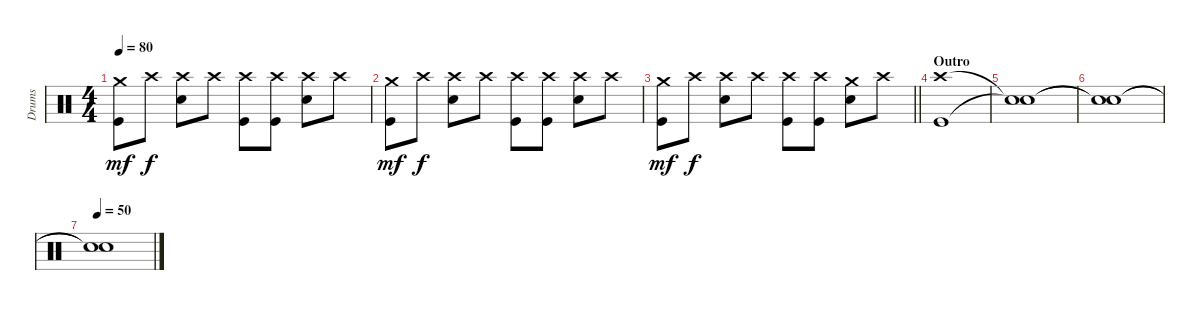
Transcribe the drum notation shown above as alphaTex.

\track ("Drums" "Drums") {instrument percussion}
\staff {score}
\articulation defaults
\ts (4 4)
\tempo 80
\clef neutral
\ks c
("Crash medium (hit)" "Kick (hit)").8{dy mf} "Crash high (hit)".8{dy f} ("Crash high (hit)" "Snare (hit) 2").8 "Crash high (hit)".8 ("Crash high (hit)" "Kick (hit)").8 ("Crash high (hit)" "Kick (hit)").8 ("Crash high (hit)" "Snare (hit) 2").8 "Crash high (hit)".8 |
("Crash medium (hit)" "Kick (hit)").8{dy mf} "Crash high (hit)".8{dy f} ("Crash high (hit)" "Snare (hit) 2").8 "Crash high (hit)".8 ("Crash high (hit)" "Kick (hit)").8 ("Crash high (hit)" "Kick (hit)").8 ("Crash high (hit)" "Snare (hit) 2").8 "Crash high (hit)".8 |
\barLineRight lightlight
("Crash medium (hit)" "Kick (hit)").8{dy mf} "Crash high (hit)".8{dy f} ("Crash high (hit)" "Snare (hit) 2").8 "Crash high (hit)".8 ("Crash high (hit)" "Kick (hit)").8 ("Crash high (hit)" "Kick (hit)").8 ("Crash medium (hit)" "Snare (hit) 2").8 "Crash high (hit)".8 |
\section ("" "Outro")
("Crash high (hit)" "Kick (hit)").1 |
("Snare (hit)"{t} "Snare (hit)"{t}).1 |
("Snare (hit)"{t} "Snare (hit)"{t}).1 |
\tempo 50
("Snare (hit)"{t} "Snare (hit)"{t}).1
